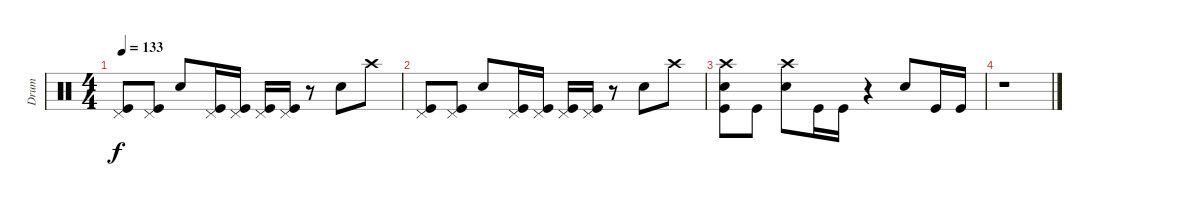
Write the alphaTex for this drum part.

\track ("Drum" "Drum") {instrument percussion}
\staff {score}
\articulation defaults
\ts (4 4)
\tempo 133
\clef neutral
\ks c
("Kick (hit)" "Pedal Hi-Hat (hit)").8{dy f} ("Kick (hit)" "Pedal Hi-Hat (hit)").8 "Snare (hit) 2".8 ("Pedal Hi-Hat (hit)" "Kick (hit)").16 ("Kick (hit)" "Pedal Hi-Hat (hit)").16 ("Kick (hit)" "Pedal Hi-Hat (hit)").16 ("Kick (hit)" "Pedal Hi-Hat (hit)").16 r.8 "Snare (hit) 2".8 "Crash high (hit)".8 |
("Kick (hit)" "Pedal Hi-Hat (hit)").8 ("Kick (hit)" "Pedal Hi-Hat (hit)").8 "Snare (hit) 2".8 ("Pedal Hi-Hat (hit)" "Kick (hit)").16 ("Kick (hit)" "Pedal Hi-Hat (hit)").16 ("Kick (hit)" "Pedal Hi-Hat (hit)").16 ("Kick (hit)" "Pedal Hi-Hat (hit)").16 r.8 "Snare (hit) 2".8 "Crash high (hit)".8 |
("Kick (hit)" "Snare (hit) 2" "Crash high (hit)").8 "Kick (hit)".8 ("Crash high (hit)" "Snare (hit) 2").8 "Kick (hit)".16 "Kick (hit)".16 r.4 "Snare (hit) 2".8 "Kick (hit)".16 "Kick (hit)".16 |
r.1
